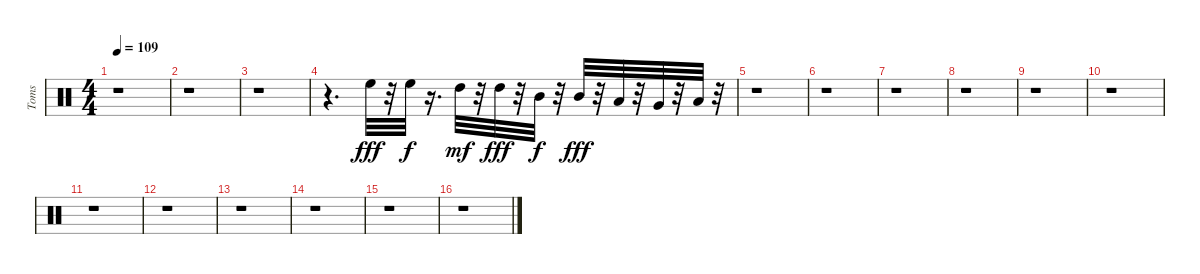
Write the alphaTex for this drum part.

\track ("Toms" "Toms") {instrument percussion}
\staff {score}
\articulation defaults
\ts (4 4)
\tempo 109
\clef neutral
\ks c
r.1{dy fff} |
r.1 |
r.1 |
r.4{d} "High Floor Tom (hit)".32 r.32 "High Floor Tom (hit)".32{dy f} r.16{d} "High Tom (hit)".32{dy mf} r.32 "High Tom (hit)".32{dy fff} r.32 "Mid Tom (hit)".32{dy f} r.32 "Mid Tom (hit)".32{dy fff} r.32 "Low Tom (hit)".32 r.32 "Very Low Tom (hit)".32 r.32 "Low Floor Tom (hit)".32 r.32 |
r.1 |
r.1 |
r.1 |
r.1 |
r.1 |
r.1 |
r.1 |
r.1 |
r.1 |
r.1 |
r.1 |
r.1
